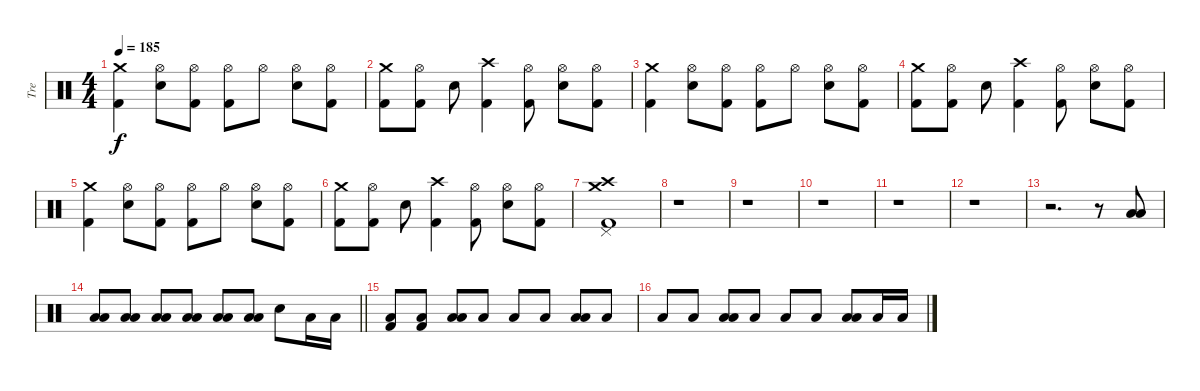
\track ("Tre" "Tre") {instrument percussion}
\staff {score}
\articulation defaults
\ts (4 4)
\tempo 185
\clef neutral
\ks c
("Crash medium (hit)" "Kick (hit) 2").4{dy f} ("Hi-Hat (open)" "Snare (hit) 2").8 ("Hi-Hat (open)" "Kick (hit) 2").8 ("Hi-Hat (open)" "Kick (hit) 2").8 "Hi-Hat (open)".8 ("Hi-Hat (open)" "Snare (hit) 2").8 ("Hi-Hat (open)" "Kick (hit) 2").8 |
("Crash medium (hit)" "Kick (hit) 2").8 ("Hi-Hat (open)" "Kick (hit) 2").8 "Snare (hit) 2".8 ("Crash high (hit)" "Kick (hit) 2").4 ("Hi-Hat (open)" "Kick (hit) 2").8 ("Hi-Hat (open)" "Snare (hit) 2").8 ("Hi-Hat (open)" "Kick (hit) 2").8 |
("Crash medium (hit)" "Kick (hit) 2").4 ("Hi-Hat (open)" "Snare (hit) 2").8 ("Hi-Hat (open)" "Kick (hit) 2").8 ("Hi-Hat (open)" "Kick (hit) 2").8 "Hi-Hat (open)".8 ("Hi-Hat (open)" "Snare (hit) 2").8 ("Hi-Hat (open)" "Kick (hit) 2").8 |
("Crash medium (hit)" "Kick (hit) 2").8 ("Hi-Hat (open)" "Kick (hit) 2").8 "Snare (hit) 2".8 ("Crash high (hit)" "Kick (hit) 2").4 ("Hi-Hat (open)" "Kick (hit) 2").8 ("Hi-Hat (open)" "Snare (hit) 2").8 ("Hi-Hat (open)" "Kick (hit) 2").8 |
("Crash medium (hit)" "Kick (hit) 2").4 ("Hi-Hat (open)" "Snare (hit) 2").8 ("Hi-Hat (open)" "Kick (hit) 2").8 ("Hi-Hat (open)" "Kick (hit) 2").8 "Hi-Hat (open)".8 ("Hi-Hat (open)" "Snare (hit) 2").8 ("Hi-Hat (open)" "Kick (hit) 2").8 |
("Crash medium (hit)" "Kick (hit) 2").8 ("Hi-Hat (open)" "Kick (hit) 2").8 "Snare (hit) 2".8 ("Crash high (hit)" "Kick (hit) 2").4 ("Hi-Hat (open)" "Kick (hit) 2").8 ("Hi-Hat (open)" "Snare (hit) 2").8 ("Hi-Hat (open)" "Kick (hit) 2").8 |
("Crash high (hit)" "Crash medium (hit)" "Pedal Hi-Hat (hit)" "Kick (hit) 2").1 |
r.1 |
r.1 |
r.1 |
r.1 |
r.1 |
r.2{d} r.8 ("Low Floor Tom (hit)" "Low Floor Tom (hit)").8 |
\barLineRight lightlight
("Low Floor Tom (hit)" "Low Floor Tom (hit)").8 ("Low Floor Tom (hit)" "Low Floor Tom (hit)").8 ("Low Floor Tom (hit)" "Low Floor Tom (hit)").8 ("Low Floor Tom (hit)" "Low Floor Tom (hit)").8 ("Low Floor Tom (hit)" "Low Floor Tom (hit)").8 ("Low Floor Tom (hit)" "Low Floor Tom (hit)").8 "Snare (hit) 2".8 "Low Floor Tom (hit)".16 "Low Floor Tom (hit)".16 |
("Low Floor Tom (hit)" "Kick (hit) 2").8 ("Low Floor Tom (hit)" "Kick (hit) 2").8 ("Low Floor Tom (hit)" "Low Floor Tom (hit)").8 "Low Floor Tom (hit)".8 "Low Floor Tom (hit)".8 "Low Floor Tom (hit)".8 ("Low Floor Tom (hit)" "Low Floor Tom (hit)").8 "Low Floor Tom (hit)".8 |
"Low Floor Tom (hit)".8 "Low Floor Tom (hit)".8 ("Low Floor Tom (hit)" "Low Floor Tom (hit)").8 "Low Floor Tom (hit)".8 "Low Floor Tom (hit)".8 "Low Floor Tom (hit)".8 ("Low Floor Tom (hit)" "Low Floor Tom (hit)").8 "Low Floor Tom (hit)".16 "Low Floor Tom (hit)".16
